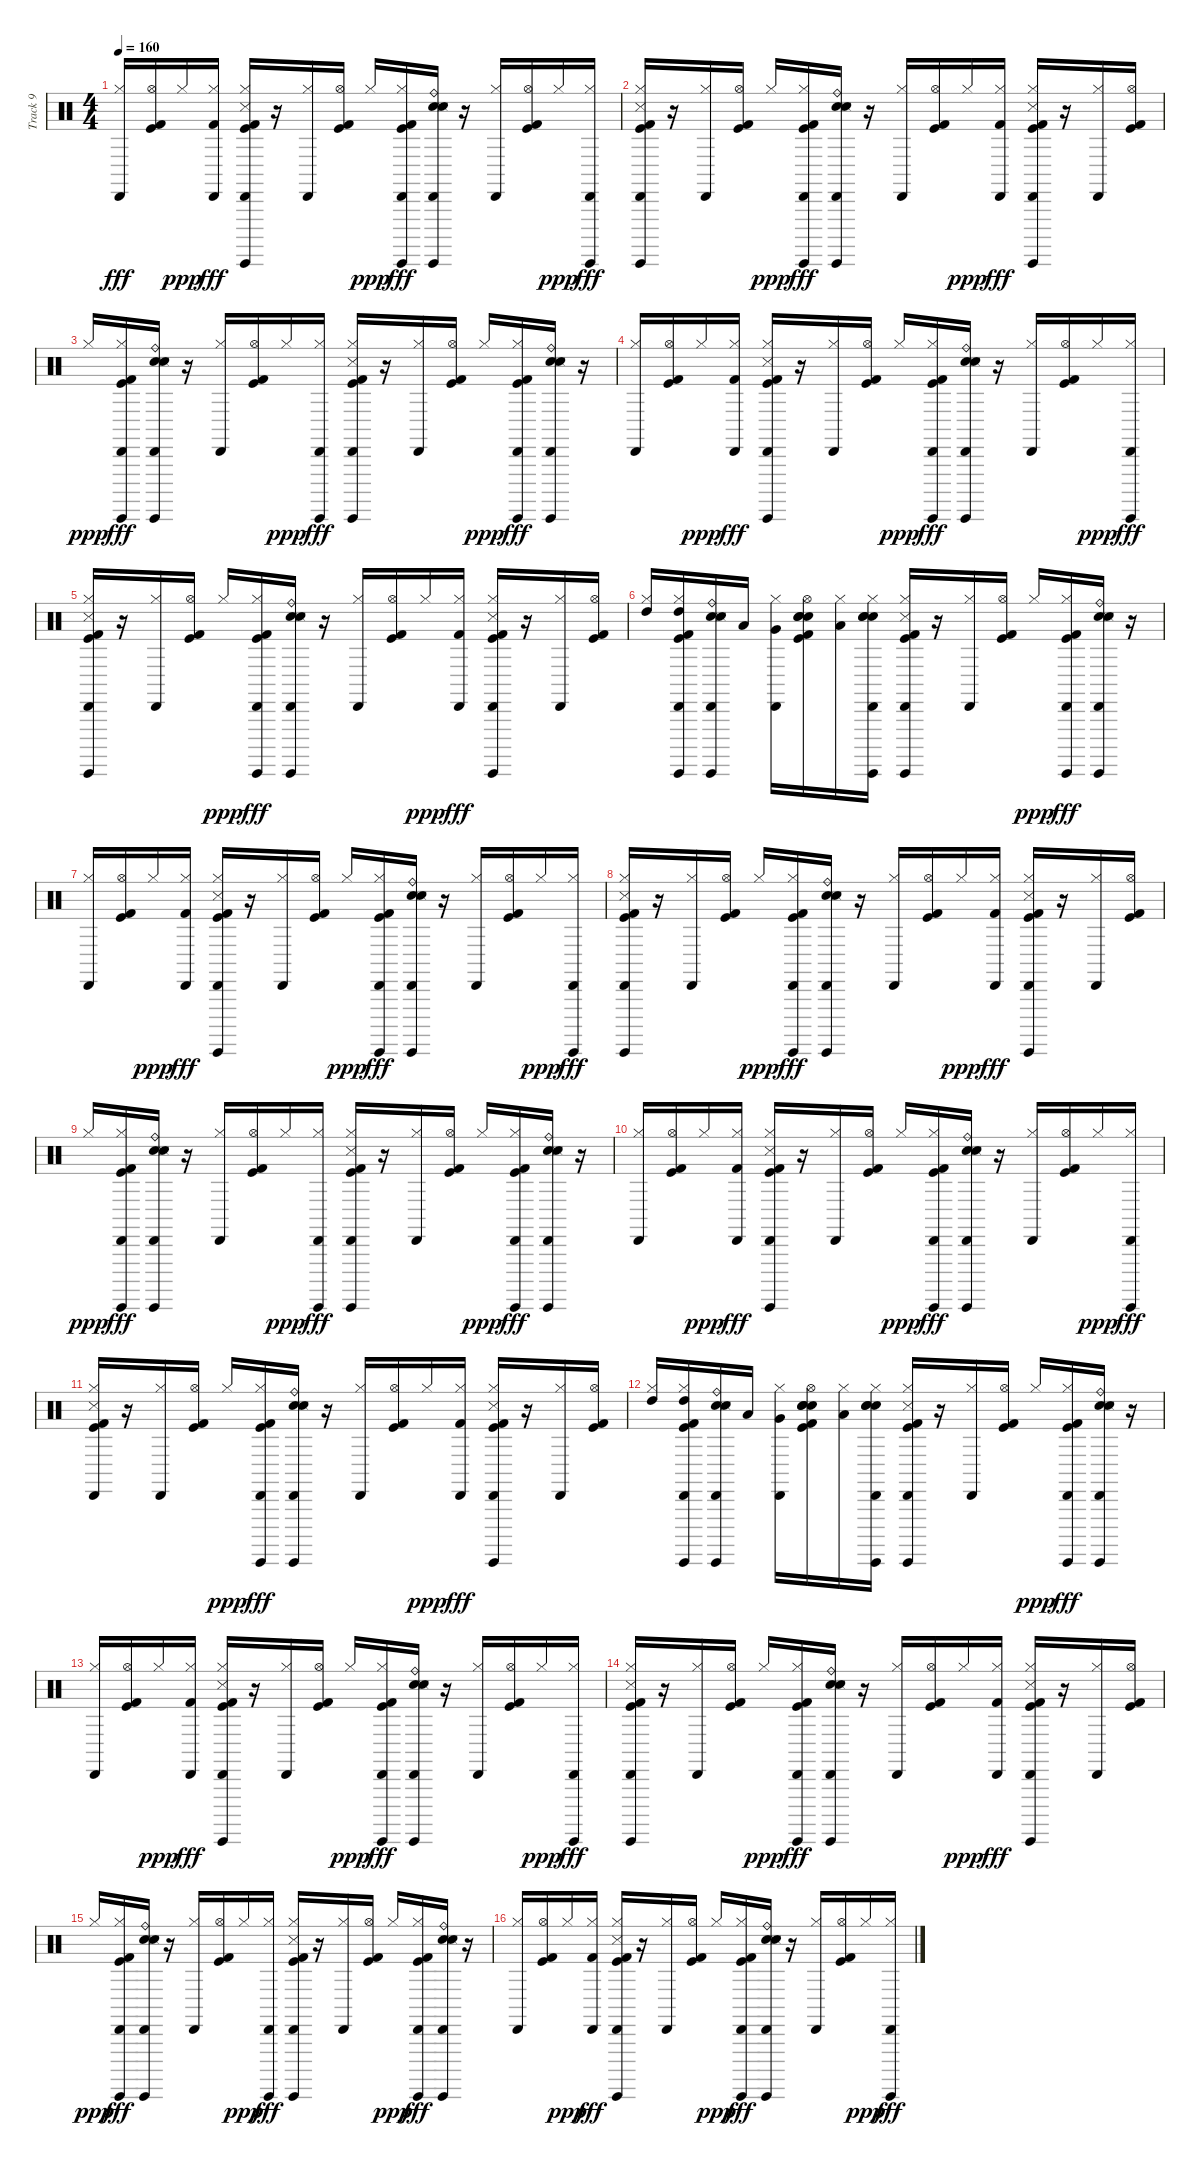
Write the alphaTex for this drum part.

\track ("Track 9" "Track 9") {instrument percussion}
\staff {score}
\articulation defaults
\ts (4 4)
\tempo 160
\clef neutral
\ks c
("Hi-Hat (closed)" "Cabasa (hit)").16{dy fff} ("Hi-Hat (open)" "Kick (hit) 2" "Kick (hit)").16 "Hi-Hat (closed)".16{dy ppp} ("Hi-Hat (closed)" "Cabasa (hit)" "Kick (hit) 2").16{dy fff} ("Kick (hit)" "Kick (hit) 2" "Hi-Hat (closed)" "Cabasa (hit)" "Snare (side stick) 3" "Guiro (hit)").16 r.16 ("Hi-Hat (closed)" "Cabasa (hit)").16 ("Hi-Hat (open)" "Kick (hit) 2" "Kick (hit)").16 "Hi-Hat (closed)".16{dy ppp} ("Hi-Hat (closed)" "Cabasa (hit)" "Kick (hit) 2" "Kick (hit)" "Guiro (hit)").16{dy fff} ("Electric Snare (hit)" "Snare (hit) 2" "Cabasa (hit)" "Snare (side stick) 3" "Ride (bell)" "Guiro (hit)").16 r.16 ("Hi-Hat (closed)" "Cabasa (hit)").16 ("Hi-Hat (open)" "Kick (hit) 2" "Kick (hit)").16 "Hi-Hat (closed)".16{dy ppp} ("Hi-Hat (closed)" "Cabasa (hit)" "Guiro (hit)").16{dy fff} |
("Hi-Hat (closed)" "Cabasa (hit)" "Snare (side stick) 3" "Kick (hit) 2" "Kick (hit)" "Guiro (hit)").16 r.16 ("Hi-Hat (closed)" "Cabasa (hit)").16 ("Hi-Hat (open)" "Kick (hit) 2" "Kick (hit)").16 "Hi-Hat (closed)".16{dy ppp} ("Hi-Hat (closed)" "Cabasa (hit)" "Kick (hit) 2" "Kick (hit)" "Guiro (hit)").16{dy fff} ("Electric Snare (hit)" "Snare (hit) 2" "Cabasa (hit)" "Snare (side stick) 3" "Ride (bell)" "Guiro (hit)").16 r.16 ("Hi-Hat (closed)" "Cabasa (hit)").16 ("Hi-Hat (open)" "Kick (hit) 2" "Kick (hit)").16 "Hi-Hat (closed)".16{dy ppp} ("Hi-Hat (closed)" "Cabasa (hit)" "Kick (hit) 2").16{dy fff} ("Kick (hit)" "Kick (hit) 2" "Hi-Hat (closed)" "Cabasa (hit)" "Snare (side stick) 3" "Guiro (hit)").16 r.16 ("Hi-Hat (closed)" "Cabasa (hit)").16 ("Hi-Hat (open)" "Kick (hit) 2" "Kick (hit)").16 |
"Hi-Hat (closed)".16{dy ppp} ("Hi-Hat (closed)" "Cabasa (hit)" "Kick (hit) 2" "Kick (hit)" "Guiro (hit)").16{dy fff} ("Electric Snare (hit)" "Snare (hit) 2" "Cabasa (hit)" "Snare (side stick) 3" "Ride (bell)" "Guiro (hit)").16 r.16 ("Hi-Hat (closed)" "Cabasa (hit)").16 ("Hi-Hat (open)" "Kick (hit) 2" "Kick (hit)").16 "Hi-Hat (closed)".16{dy ppp} ("Hi-Hat (closed)" "Cabasa (hit)" "Guiro (hit)").16{dy fff} ("Hi-Hat (closed)" "Cabasa (hit)" "Snare (side stick) 3" "Kick (hit) 2" "Kick (hit)" "Guiro (hit)").16 r.16 ("Hi-Hat (closed)" "Cabasa (hit)").16 ("Hi-Hat (open)" "Kick (hit) 2" "Kick (hit)").16 "Hi-Hat (closed)".16{dy ppp} ("Hi-Hat (closed)" "Cabasa (hit)" "Kick (hit) 2" "Kick (hit)" "Guiro (hit)").16{dy fff} ("Electric Snare (hit)" "Snare (hit) 2" "Cabasa (hit)" "Snare (side stick) 3" "Ride (bell)" "Guiro (hit)").16 r.16 |
("Hi-Hat (closed)" "Cabasa (hit)").16 ("Hi-Hat (open)" "Kick (hit) 2" "Kick (hit)").16 "Hi-Hat (closed)".16{dy ppp} ("Hi-Hat (closed)" "Cabasa (hit)" "Kick (hit) 2").16{dy fff} ("Kick (hit)" "Kick (hit) 2" "Hi-Hat (closed)" "Cabasa (hit)" "Snare (side stick) 3" "Guiro (hit)").16 r.16 ("Hi-Hat (closed)" "Cabasa (hit)").16 ("Hi-Hat (open)" "Kick (hit) 2" "Kick (hit)").16 "Hi-Hat (closed)".16{dy ppp} ("Hi-Hat (closed)" "Cabasa (hit)" "Kick (hit) 2" "Kick (hit)" "Guiro (hit)").16{dy fff} ("Electric Snare (hit)" "Snare (hit) 2" "Cabasa (hit)" "Snare (side stick) 3" "Ride (bell)" "Guiro (hit)").16 r.16 ("Hi-Hat (closed)" "Cabasa (hit)").16 ("Hi-Hat (open)" "Kick (hit) 2" "Kick (hit)").16 "Hi-Hat (closed)".16{dy ppp} ("Hi-Hat (closed)" "Cabasa (hit)" "Guiro (hit)").16{dy fff} |
("Hi-Hat (closed)" "Cabasa (hit)" "Snare (side stick) 3" "Kick (hit) 2" "Kick (hit)" "Guiro (hit)").16 r.16 ("Hi-Hat (closed)" "Cabasa (hit)").16 ("Hi-Hat (open)" "Kick (hit) 2" "Kick (hit)").16 "Hi-Hat (closed)".16{dy ppp} ("Hi-Hat (closed)" "Cabasa (hit)" "Kick (hit) 2" "Kick (hit)" "Guiro (hit)").16{dy fff} ("Electric Snare (hit)" "Snare (hit) 2" "Cabasa (hit)" "Snare (side stick) 3" "Ride (bell)" "Guiro (hit)").16 r.16 ("Hi-Hat (closed)" "Cabasa (hit)").16 ("Hi-Hat (open)" "Kick (hit) 2" "Kick (hit)").16 "Hi-Hat (closed)".16{dy ppp} ("Hi-Hat (closed)" "Cabasa (hit)" "Kick (hit) 2").16{dy fff} ("Kick (hit)" "Kick (hit) 2" "Hi-Hat (closed)" "Cabasa (hit)" "Snare (side stick) 3" "Guiro (hit)").16 r.16 ("Hi-Hat (closed)" "Cabasa (hit)").16 ("Hi-Hat (open)" "Kick (hit) 2" "Kick (hit)").16 |
("Hi-Hat (closed)" "High Tom (hit)").16 ("Hi-Hat (closed)" "Cabasa (hit)" "Kick (hit) 2" "Kick (hit)" "Guiro (hit)" "High Tom (hit)").16 ("Electric Snare (hit)" "Snare (hit) 2" "Cabasa (hit)" "Snare (side stick) 3" "Ride (bell)" "Guiro (hit)").16 "Low Tom (hit)".16 ("Hi-Hat (closed)" "Cabasa (hit)" "Very Low Tom (hit)").16 ("Hi-Hat (open)" "Kick (hit) 2" "Kick (hit)" "Electric Snare (hit)" "Snare (hit) 2" "Hand Clap (hit)").16 ("Hi-Hat (closed)" "Low Floor Tom (hit)").16 ("Hi-Hat (closed)" "Cabasa (hit)" "Guiro (hit)" "Electric Snare (hit)" "Snare (hit) 2" "Hand Clap (hit)").16 ("Hi-Hat (closed)" "Cabasa (hit)" "Snare (side stick) 3" "Kick (hit) 2" "Kick (hit)" "Guiro (hit)").16 r.16 ("Hi-Hat (closed)" "Cabasa (hit)").16 ("Hi-Hat (open)" "Kick (hit) 2" "Kick (hit)").16 "Hi-Hat (closed)".16{dy ppp} ("Hi-Hat (closed)" "Cabasa (hit)" "Kick (hit) 2" "Kick (hit)" "Guiro (hit)").16{dy fff} ("Electric Snare (hit)" "Snare (hit) 2" "Cabasa (hit)" "Snare (side stick) 3" "Ride (bell)" "Guiro (hit)").16 r.16 |
("Hi-Hat (closed)" "Cabasa (hit)").16 ("Hi-Hat (open)" "Kick (hit) 2" "Kick (hit)").16 "Hi-Hat (closed)".16{dy ppp} ("Hi-Hat (closed)" "Cabasa (hit)" "Kick (hit) 2").16{dy fff} ("Kick (hit)" "Kick (hit) 2" "Hi-Hat (closed)" "Cabasa (hit)" "Snare (side stick) 3" "Guiro (hit)").16 r.16 ("Hi-Hat (closed)" "Cabasa (hit)").16 ("Hi-Hat (open)" "Kick (hit) 2" "Kick (hit)").16 "Hi-Hat (closed)".16{dy ppp} ("Hi-Hat (closed)" "Cabasa (hit)" "Kick (hit) 2" "Kick (hit)" "Guiro (hit)").16{dy fff} ("Electric Snare (hit)" "Snare (hit) 2" "Cabasa (hit)" "Snare (side stick) 3" "Ride (bell)" "Guiro (hit)").16 r.16 ("Hi-Hat (closed)" "Cabasa (hit)").16 ("Hi-Hat (open)" "Kick (hit) 2" "Kick (hit)").16 "Hi-Hat (closed)".16{dy ppp} ("Hi-Hat (closed)" "Cabasa (hit)" "Guiro (hit)").16{dy fff} |
("Hi-Hat (closed)" "Cabasa (hit)" "Snare (side stick) 3" "Kick (hit) 2" "Kick (hit)" "Guiro (hit)").16 r.16 ("Hi-Hat (closed)" "Cabasa (hit)").16 ("Hi-Hat (open)" "Kick (hit) 2" "Kick (hit)").16 "Hi-Hat (closed)".16{dy ppp} ("Hi-Hat (closed)" "Cabasa (hit)" "Kick (hit) 2" "Kick (hit)" "Guiro (hit)").16{dy fff} ("Electric Snare (hit)" "Snare (hit) 2" "Cabasa (hit)" "Snare (side stick) 3" "Ride (bell)" "Guiro (hit)").16 r.16 ("Hi-Hat (closed)" "Cabasa (hit)").16 ("Hi-Hat (open)" "Kick (hit) 2" "Kick (hit)").16 "Hi-Hat (closed)".16{dy ppp} ("Hi-Hat (closed)" "Cabasa (hit)" "Kick (hit) 2").16{dy fff} ("Kick (hit)" "Kick (hit) 2" "Hi-Hat (closed)" "Cabasa (hit)" "Snare (side stick) 3" "Guiro (hit)").16 r.16 ("Hi-Hat (closed)" "Cabasa (hit)").16 ("Hi-Hat (open)" "Kick (hit) 2" "Kick (hit)").16 |
"Hi-Hat (closed)".16{dy ppp} ("Hi-Hat (closed)" "Cabasa (hit)" "Kick (hit) 2" "Kick (hit)" "Guiro (hit)").16{dy fff} ("Electric Snare (hit)" "Snare (hit) 2" "Cabasa (hit)" "Snare (side stick) 3" "Ride (bell)" "Guiro (hit)").16 r.16 ("Hi-Hat (closed)" "Cabasa (hit)").16 ("Hi-Hat (open)" "Kick (hit) 2" "Kick (hit)").16 "Hi-Hat (closed)".16{dy ppp} ("Hi-Hat (closed)" "Cabasa (hit)" "Guiro (hit)").16{dy fff} ("Hi-Hat (closed)" "Cabasa (hit)" "Snare (side stick) 3" "Kick (hit) 2" "Kick (hit)" "Guiro (hit)").16 r.16 ("Hi-Hat (closed)" "Cabasa (hit)").16 ("Hi-Hat (open)" "Kick (hit) 2" "Kick (hit)").16 "Hi-Hat (closed)".16{dy ppp} ("Hi-Hat (closed)" "Cabasa (hit)" "Kick (hit) 2" "Kick (hit)" "Guiro (hit)").16{dy fff} ("Electric Snare (hit)" "Snare (hit) 2" "Cabasa (hit)" "Snare (side stick) 3" "Ride (bell)" "Guiro (hit)").16 r.16 |
("Hi-Hat (closed)" "Cabasa (hit)").16 ("Hi-Hat (open)" "Kick (hit) 2" "Kick (hit)").16 "Hi-Hat (closed)".16{dy ppp} ("Hi-Hat (closed)" "Cabasa (hit)" "Kick (hit) 2").16{dy fff} ("Kick (hit)" "Kick (hit) 2" "Hi-Hat (closed)" "Cabasa (hit)" "Snare (side stick) 3" "Guiro (hit)").16 r.16 ("Hi-Hat (closed)" "Cabasa (hit)").16 ("Hi-Hat (open)" "Kick (hit) 2" "Kick (hit)").16 "Hi-Hat (closed)".16{dy ppp} ("Hi-Hat (closed)" "Cabasa (hit)" "Kick (hit) 2" "Kick (hit)" "Guiro (hit)").16{dy fff} ("Electric Snare (hit)" "Snare (hit) 2" "Cabasa (hit)" "Snare (side stick) 3" "Ride (bell)" "Guiro (hit)").16 r.16 ("Hi-Hat (closed)" "Cabasa (hit)").16 ("Hi-Hat (open)" "Kick (hit) 2" "Kick (hit)").16 "Hi-Hat (closed)".16{dy ppp} ("Hi-Hat (closed)" "Cabasa (hit)" "Guiro (hit)").16{dy fff} |
("Hi-Hat (closed)" "Cabasa (hit)" "Snare (side stick) 3" "Kick (hit) 2" "Kick (hit)").16 r.16 ("Hi-Hat (closed)" "Cabasa (hit)").16 ("Hi-Hat (open)" "Kick (hit) 2" "Kick (hit)").16 "Hi-Hat (closed)".16{dy ppp} ("Hi-Hat (closed)" "Cabasa (hit)" "Kick (hit) 2" "Kick (hit)" "Guiro (hit)").16{dy fff} ("Electric Snare (hit)" "Snare (hit) 2" "Cabasa (hit)" "Snare (side stick) 3" "Ride (bell)" "Guiro (hit)").16 r.16 ("Hi-Hat (closed)" "Cabasa (hit)").16 ("Hi-Hat (open)" "Kick (hit) 2" "Kick (hit)").16 "Hi-Hat (closed)".16{dy ppp} ("Hi-Hat (closed)" "Cabasa (hit)" "Kick (hit) 2").16{dy fff} ("Kick (hit)" "Kick (hit) 2" "Hi-Hat (closed)" "Cabasa (hit)" "Snare (side stick) 3" "Guiro (hit)").16 r.16 ("Hi-Hat (closed)" "Cabasa (hit)").16 ("Hi-Hat (open)" "Kick (hit) 2" "Kick (hit)").16 |
("Hi-Hat (closed)" "High Tom (hit)").16 ("Hi-Hat (closed)" "Cabasa (hit)" "Kick (hit) 2" "Kick (hit)" "Guiro (hit)" "High Tom (hit)").16 ("Electric Snare (hit)" "Snare (hit) 2" "Cabasa (hit)" "Snare (side stick) 3" "Ride (bell)" "Guiro (hit)").16 "Low Tom (hit)".16 ("Hi-Hat (closed)" "Cabasa (hit)" "Very Low Tom (hit)").16 ("Hi-Hat (open)" "Kick (hit) 2" "Kick (hit)" "Electric Snare (hit)" "Snare (hit) 2" "Hand Clap (hit)").16 ("Hi-Hat (closed)" "Low Floor Tom (hit)").16 ("Hi-Hat (closed)" "Cabasa (hit)" "Guiro (hit)" "Electric Snare (hit)" "Snare (hit) 2" "Hand Clap (hit)").16 ("Hi-Hat (closed)" "Cabasa (hit)" "Snare (side stick) 3" "Kick (hit) 2" "Kick (hit)" "Guiro (hit)").16 r.16 ("Hi-Hat (closed)" "Cabasa (hit)").16 ("Hi-Hat (open)" "Kick (hit) 2" "Kick (hit)").16 "Hi-Hat (closed)".16{dy ppp} ("Hi-Hat (closed)" "Cabasa (hit)" "Kick (hit) 2" "Kick (hit)" "Guiro (hit)").16{dy fff} ("Electric Snare (hit)" "Snare (hit) 2" "Cabasa (hit)" "Snare (side stick) 3" "Ride (bell)" "Guiro (hit)").16 r.16 |
("Hi-Hat (closed)" "Cabasa (hit)").16 ("Hi-Hat (open)" "Kick (hit) 2" "Kick (hit)").16 "Hi-Hat (closed)".16{dy ppp} ("Hi-Hat (closed)" "Cabasa (hit)" "Kick (hit) 2").16{dy fff} ("Kick (hit)" "Kick (hit) 2" "Hi-Hat (closed)" "Cabasa (hit)" "Snare (side stick) 3" "Guiro (hit)").16 r.16 ("Hi-Hat (closed)" "Cabasa (hit)").16 ("Hi-Hat (open)" "Kick (hit) 2" "Kick (hit)").16 "Hi-Hat (closed)".16{dy ppp} ("Hi-Hat (closed)" "Cabasa (hit)" "Kick (hit) 2" "Kick (hit)" "Guiro (hit)").16{dy fff} ("Electric Snare (hit)" "Snare (hit) 2" "Cabasa (hit)" "Snare (side stick) 3" "Ride (bell)" "Guiro (hit)").16 r.16 ("Hi-Hat (closed)" "Cabasa (hit)").16 ("Hi-Hat (open)" "Kick (hit) 2" "Kick (hit)").16 "Hi-Hat (closed)".16{dy ppp} ("Hi-Hat (closed)" "Cabasa (hit)" "Guiro (hit)").16{dy fff} |
("Hi-Hat (closed)" "Cabasa (hit)" "Snare (side stick) 3" "Kick (hit) 2" "Kick (hit)" "Guiro (hit)").16 r.16 ("Hi-Hat (closed)" "Cabasa (hit)").16 ("Hi-Hat (open)" "Kick (hit) 2" "Kick (hit)").16 "Hi-Hat (closed)".16{dy ppp} ("Hi-Hat (closed)" "Cabasa (hit)" "Kick (hit) 2" "Kick (hit)" "Guiro (hit)").16{dy fff} ("Electric Snare (hit)" "Snare (hit) 2" "Cabasa (hit)" "Snare (side stick) 3" "Ride (bell)" "Guiro (hit)").16 r.16 ("Hi-Hat (closed)" "Cabasa (hit)").16 ("Hi-Hat (open)" "Kick (hit) 2" "Kick (hit)").16 "Hi-Hat (closed)".16{dy ppp} ("Hi-Hat (closed)" "Cabasa (hit)" "Kick (hit) 2").16{dy fff} ("Kick (hit)" "Kick (hit) 2" "Hi-Hat (closed)" "Cabasa (hit)" "Snare (side stick) 3" "Guiro (hit)").16 r.16 ("Hi-Hat (closed)" "Cabasa (hit)").16 ("Hi-Hat (open)" "Kick (hit) 2" "Kick (hit)").16 |
"Hi-Hat (closed)".16{dy ppp} ("Hi-Hat (closed)" "Cabasa (hit)" "Kick (hit) 2" "Kick (hit)" "Guiro (hit)").16{dy fff} ("Electric Snare (hit)" "Snare (hit) 2" "Cabasa (hit)" "Snare (side stick) 3" "Ride (bell)" "Guiro (hit)").16 r.16 ("Hi-Hat (closed)" "Cabasa (hit)").16 ("Hi-Hat (open)" "Kick (hit) 2" "Kick (hit)").16 "Hi-Hat (closed)".16{dy ppp} ("Hi-Hat (closed)" "Cabasa (hit)" "Guiro (hit)").16{dy fff} ("Hi-Hat (closed)" "Cabasa (hit)" "Snare (side stick) 3" "Kick (hit) 2" "Kick (hit)" "Guiro (hit)").16 r.16 ("Hi-Hat (closed)" "Cabasa (hit)").16 ("Hi-Hat (open)" "Kick (hit) 2" "Kick (hit)").16 "Hi-Hat (closed)".16{dy ppp} ("Hi-Hat (closed)" "Cabasa (hit)" "Kick (hit) 2" "Kick (hit)" "Guiro (hit)").16{dy fff} ("Electric Snare (hit)" "Snare (hit) 2" "Cabasa (hit)" "Snare (side stick) 3" "Ride (bell)" "Guiro (hit)").16 r.16 |
("Hi-Hat (closed)" "Cabasa (hit)").16 ("Hi-Hat (open)" "Kick (hit) 2" "Kick (hit)").16 "Hi-Hat (closed)".16{dy ppp} ("Hi-Hat (closed)" "Cabasa (hit)" "Kick (hit) 2").16{dy fff} ("Kick (hit)" "Kick (hit) 2" "Hi-Hat (closed)" "Cabasa (hit)" "Snare (side stick) 3" "Guiro (hit)").16 r.16 ("Hi-Hat (closed)" "Cabasa (hit)").16 ("Hi-Hat (open)" "Kick (hit) 2" "Kick (hit)").16 "Hi-Hat (closed)".16{dy ppp} ("Hi-Hat (closed)" "Cabasa (hit)" "Kick (hit) 2" "Kick (hit)" "Guiro (hit)").16{dy fff} ("Electric Snare (hit)" "Snare (hit) 2" "Cabasa (hit)" "Snare (side stick) 3" "Ride (bell)" "Guiro (hit)").16 r.16 ("Hi-Hat (closed)" "Cabasa (hit)").16 ("Hi-Hat (open)" "Kick (hit) 2" "Kick (hit)").16 "Hi-Hat (closed)".16{dy ppp} ("Hi-Hat (closed)" "Cabasa (hit)" "Guiro (hit)").16{dy fff}
